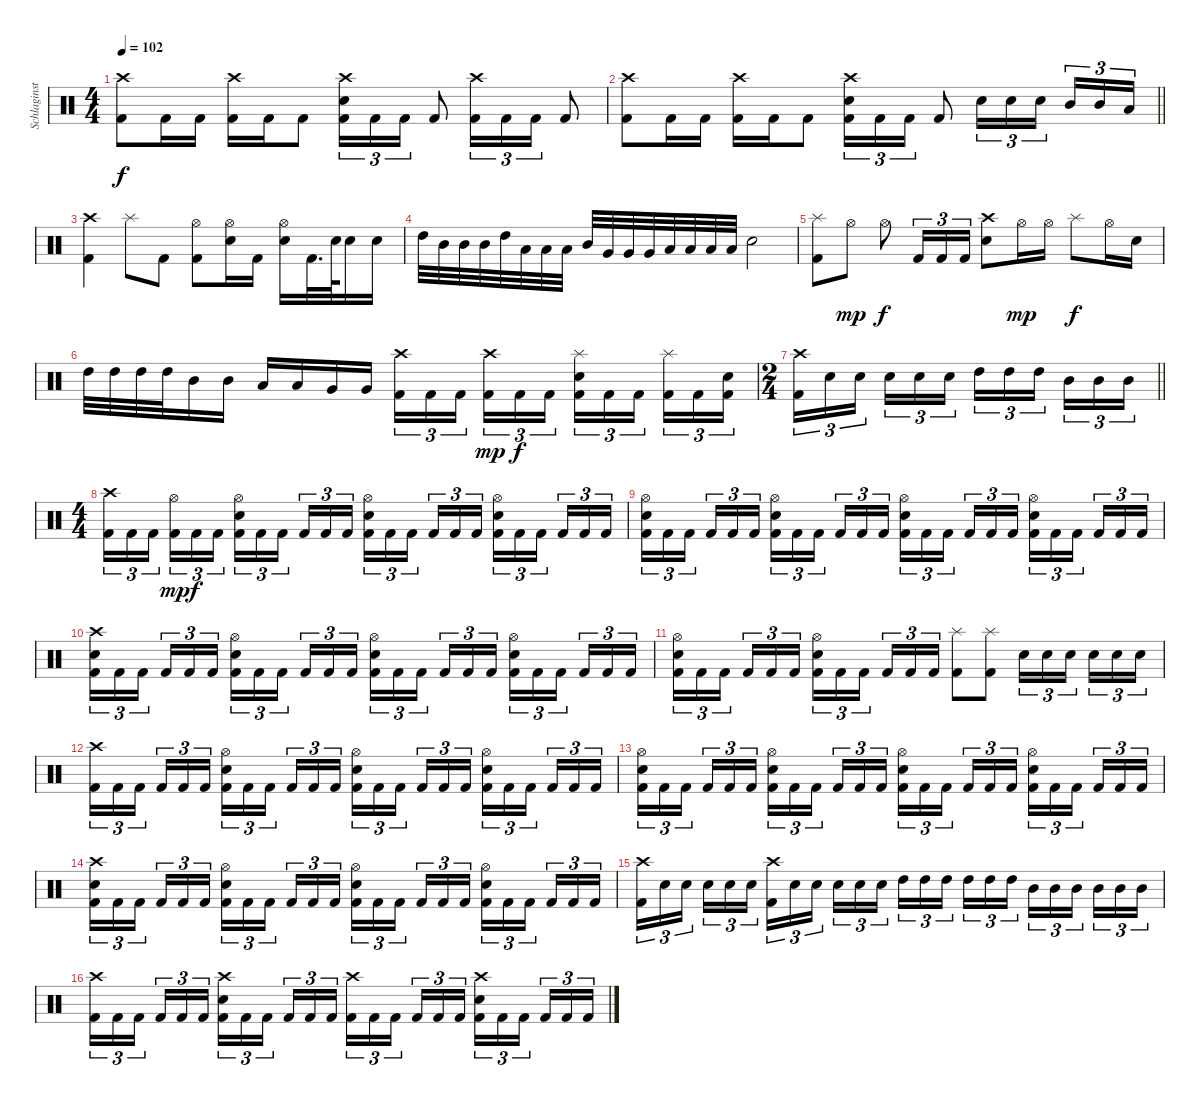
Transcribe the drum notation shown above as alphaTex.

\track ("Schlaginstrumente - Auswahl" "Schlaginst") {instrument percussion}
\staff {score}
\articulation defaults
\ts (4 4)
\tempo 102
\clef neutral
\ks c
("Crash high (hit)" "Kick (hit) 2").8{dy f} "Kick (hit) 2".16 "Kick (hit) 2".16 ("Crash high (hit)" "Kick (hit) 2").16 "Kick (hit) 2".16 "Kick (hit) 2".8 ("Crash high (hit)" "Snare (hit) 2" "Kick (hit) 2").16{tu (3 2)} "Kick (hit) 2".16{tu (3 2)} "Kick (hit) 2".16{tu (3 2)} "Kick (hit) 2".8 ("Crash high (hit)" "Kick (hit) 2").16{tu (3 2)} "Kick (hit) 2".16{tu (3 2)} "Kick (hit) 2".16{tu (3 2)} "Kick (hit) 2".8 |
\barLineRight lightlight
("Crash high (hit)" "Kick (hit) 2").8 "Kick (hit) 2".16 "Kick (hit) 2".16 ("Crash high (hit)" "Kick (hit) 2").16 "Kick (hit) 2".16 "Kick (hit) 2".8 ("Crash high (hit)" "Snare (hit) 2" "Kick (hit) 2").16{tu (3 2)} "Kick (hit) 2".16{tu (3 2)} "Kick (hit) 2".16{tu (3 2)} "Kick (hit) 2".8 "Snare (hit) 2".16{tu (3 2)} "Snare (hit) 2".16{tu (3 2)} "Snare (hit) 2".16{tu (3 2) beam splitsecondary} "Mid Tom (hit)".16{tu (3 2)} "Mid Tom (hit)".16{tu (3 2)} "Low Tom (hit)".16{tu (3 2)} |
("Crash high (hit)" "Kick (hit) 2").4 "Splash (hit)".8 "Kick (hit) 2".8 ("Hi-Hat (open)" "Kick (hit) 2").8 ("Hi-Hat (open)" "Snare (hit) 2").16 "Kick (hit) 2".16 ("Hi-Hat (open)" "Snare (hit) 2").16 "Kick (hit) 2".32{d} "Snare (hit) 2".64 "Snare (hit) 2".16 "Snare (hit) 2".16 |
"High Tom (hit)".32 "Mid Tom (hit)".32 "Mid Tom (hit)".32 "Mid Tom (hit)".32 "High Tom (hit)".32 "Low Tom (hit)".32 "Low Tom (hit)".32 "Low Tom (hit)".32 "Mid Tom (hit)".32 "Very Low Tom (hit)".32 "Very Low Tom (hit)".32 "Very Low Tom (hit)".32 "Low Tom (hit)".32 "Low Floor Tom (hit)".32 "Low Floor Tom (hit)".32 "Low Floor Tom (hit)".32 "Snare (hit) 2".2 |
("Splash (hit)" "Kick (hit) 2").8 "Hi-Hat (open)".8{dy mp} "Hi-Hat (open)".8{dy f} "Kick (hit) 2".16{tu (3 2)} "Kick (hit) 2".16{tu (3 2)} "Kick (hit) 2".16{tu (3 2)} ("Crash high (hit)" "Snare (hit) 2").8 "Hi-Hat (open)".16{dy mp} "Hi-Hat (open)".16 "Splash (hit)".8{dy f} "Hi-Hat (open)".16 "Snare (hit) 2".16 |
"High Tom (hit)".32 "High Tom (hit)".32 "High Tom (hit)".32 "High Tom (hit)".32 "Mid Tom (hit)".16 "Mid Tom (hit)".16 "Low Tom (hit)".16 "Low Tom (hit)".16 "Very Low Tom (hit)".16 "Very Low Tom (hit)".16 ("Crash high (hit)" "Kick (hit) 2").16{tu (3 2)} "Kick (hit) 2".16{tu (3 2)} "Kick (hit) 2".16{tu (3 2) beam splitsecondary} ("Crash high (hit)" "Kick (hit) 2").16{tu (3 2) dy mp} "Kick (hit) 2".16{tu (3 2) dy f} "Kick (hit) 2".16{tu (3 2)} ("Splash (hit)" "Snare (hit) 2" "Kick (hit) 2").16{tu (3 2)} "Kick (hit) 2".16{tu (3 2)} "Kick (hit) 2".16{tu (3 2) beam splitsecondary} ("Splash (hit)" "Kick (hit) 2").16{tu (3 2)} "Kick (hit) 2".16{tu (3 2)} ("Snare (hit) 2" "Kick (hit) 2").16{tu (3 2)} |
\ts (2 4)
\barLineRight lightlight
("Crash high (hit)" "Kick (hit) 2").16{tu (3 2)} "Snare (hit) 2".16{tu (3 2)} "Snare (hit) 2".16{tu (3 2) beam splitsecondary} "Snare (hit) 2".16{tu (3 2)} "Snare (hit) 2".16{tu (3 2)} "Snare (hit) 2".16{tu (3 2)} "High Tom (hit)".16{tu (3 2)} "High Tom (hit)".16{tu (3 2)} "High Tom (hit)".16{tu (3 2) beam splitsecondary} "Mid Tom (hit)".16{tu (3 2)} "Mid Tom (hit)".16{tu (3 2)} "Mid Tom (hit)".16{tu (3 2)} |
\ts (4 4)
("Crash high (hit)" "Kick (hit) 2").16{tu (3 2)} "Kick (hit) 2".16{tu (3 2)} "Kick (hit) 2".16{tu (3 2) beam splitsecondary} ("Hi-Hat (open)" "Kick (hit) 2").16{tu (3 2) dy mp} "Kick (hit) 2".16{tu (3 2) dy f} "Kick (hit) 2".16{tu (3 2)} ("Hi-Hat (open)" "Snare (hit) 2" "Kick (hit) 2").16{tu (3 2)} "Kick (hit) 2".16{tu (3 2)} "Kick (hit) 2".16{tu (3 2) beam splitsecondary} "Kick (hit) 2".16{tu (3 2)} "Kick (hit) 2".16{tu (3 2)} "Kick (hit) 2".16{tu (3 2)} ("Hi-Hat (open)" "Snare (hit) 2" "Kick (hit) 2").16{tu (3 2)} "Kick (hit) 2".16{tu (3 2)} "Kick (hit) 2".16{tu (3 2) beam splitsecondary} "Kick (hit) 2".16{tu (3 2)} "Kick (hit) 2".16{tu (3 2)} "Kick (hit) 2".16{tu (3 2)} ("Hi-Hat (open)" "Snare (hit) 2" "Kick (hit) 2").16{tu (3 2)} "Kick (hit) 2".16{tu (3 2)} "Kick (hit) 2".16{tu (3 2) beam splitsecondary} "Kick (hit) 2".16{tu (3 2)} "Kick (hit) 2".16{tu (3 2)} "Kick (hit) 2".16{tu (3 2)} |
("Hi-Hat (open)" "Snare (hit) 2" "Kick (hit) 2").16{tu (3 2)} "Kick (hit) 2".16{tu (3 2)} "Kick (hit) 2".16{tu (3 2) beam splitsecondary} "Kick (hit) 2".16{tu (3 2)} "Kick (hit) 2".16{tu (3 2)} "Kick (hit) 2".16{tu (3 2)} ("Hi-Hat (open)" "Snare (hit) 2" "Kick (hit) 2").16{tu (3 2)} "Kick (hit) 2".16{tu (3 2)} "Kick (hit) 2".16{tu (3 2) beam splitsecondary} "Kick (hit) 2".16{tu (3 2)} "Kick (hit) 2".16{tu (3 2)} "Kick (hit) 2".16{tu (3 2)} ("Hi-Hat (open)" "Snare (hit) 2" "Kick (hit) 2").16{tu (3 2)} "Kick (hit) 2".16{tu (3 2)} "Kick (hit) 2".16{tu (3 2) beam splitsecondary} "Kick (hit) 2".16{tu (3 2)} "Kick (hit) 2".16{tu (3 2)} "Kick (hit) 2".16{tu (3 2)} ("Hi-Hat (open)" "Snare (hit) 2" "Kick (hit) 2").16{tu (3 2)} "Kick (hit) 2".16{tu (3 2)} "Kick (hit) 2".16{tu (3 2) beam splitsecondary} "Kick (hit) 2".16{tu (3 2)} "Kick (hit) 2".16{tu (3 2)} "Kick (hit) 2".16{tu (3 2)} |
("Crash high (hit)" "Snare (hit) 2" "Kick (hit) 2").16{tu (3 2)} "Kick (hit) 2".16{tu (3 2)} "Kick (hit) 2".16{tu (3 2) beam splitsecondary} "Kick (hit) 2".16{tu (3 2)} "Kick (hit) 2".16{tu (3 2)} "Kick (hit) 2".16{tu (3 2)} ("Hi-Hat (open)" "Snare (hit) 2" "Kick (hit) 2").16{tu (3 2)} "Kick (hit) 2".16{tu (3 2)} "Kick (hit) 2".16{tu (3 2) beam splitsecondary} "Kick (hit) 2".16{tu (3 2)} "Kick (hit) 2".16{tu (3 2)} "Kick (hit) 2".16{tu (3 2)} ("Hi-Hat (open)" "Snare (hit) 2" "Kick (hit) 2").16{tu (3 2)} "Kick (hit) 2".16{tu (3 2)} "Kick (hit) 2".16{tu (3 2) beam splitsecondary} "Kick (hit) 2".16{tu (3 2)} "Kick (hit) 2".16{tu (3 2)} "Kick (hit) 2".16{tu (3 2)} ("Hi-Hat (open)" "Snare (hit) 2" "Kick (hit) 2").16{tu (3 2)} "Kick (hit) 2".16{tu (3 2)} "Kick (hit) 2".16{tu (3 2) beam splitsecondary} "Kick (hit) 2".16{tu (3 2)} "Kick (hit) 2".16{tu (3 2)} "Kick (hit) 2".16{tu (3 2)} |
("Hi-Hat (open)" "Snare (hit) 2" "Kick (hit) 2").16{tu (3 2)} "Kick (hit) 2".16{tu (3 2)} "Kick (hit) 2".16{tu (3 2) beam splitsecondary} "Kick (hit) 2".16{tu (3 2)} "Kick (hit) 2".16{tu (3 2)} "Kick (hit) 2".16{tu (3 2)} ("Hi-Hat (open)" "Snare (hit) 2" "Kick (hit) 2").16{tu (3 2)} "Kick (hit) 2".16{tu (3 2)} "Kick (hit) 2".16{tu (3 2) beam splitsecondary} "Kick (hit) 2".16{tu (3 2)} "Kick (hit) 2".16{tu (3 2)} "Kick (hit) 2".16{tu (3 2)} ("Splash (hit)" "Kick (hit) 2").8 ("Splash (hit)" "Kick (hit) 2").8 "Snare (hit) 2".16{tu (3 2)} "Snare (hit) 2".16{tu (3 2)} "Snare (hit) 2".16{tu (3 2) beam splitsecondary} "Snare (hit) 2".16{tu (3 2)} "Snare (hit) 2".16{tu (3 2)} "Snare (hit) 2".16{tu (3 2)} |
("Crash high (hit)" "Kick (hit) 2").16{tu (3 2)} "Kick (hit) 2".16{tu (3 2)} "Kick (hit) 2".16{tu (3 2) beam splitsecondary} "Kick (hit) 2".16{tu (3 2)} "Kick (hit) 2".16{tu (3 2)} "Kick (hit) 2".16{tu (3 2)} ("Hi-Hat (open)" "Snare (hit) 2" "Kick (hit) 2").16{tu (3 2)} "Kick (hit) 2".16{tu (3 2)} "Kick (hit) 2".16{tu (3 2) beam splitsecondary} "Kick (hit) 2".16{tu (3 2)} "Kick (hit) 2".16{tu (3 2)} "Kick (hit) 2".16{tu (3 2)} ("Hi-Hat (open)" "Snare (hit) 2" "Kick (hit) 2").16{tu (3 2)} "Kick (hit) 2".16{tu (3 2)} "Kick (hit) 2".16{tu (3 2) beam splitsecondary} "Kick (hit) 2".16{tu (3 2)} "Kick (hit) 2".16{tu (3 2)} "Kick (hit) 2".16{tu (3 2)} ("Hi-Hat (open)" "Snare (hit) 2" "Kick (hit) 2").16{tu (3 2)} "Kick (hit) 2".16{tu (3 2)} "Kick (hit) 2".16{tu (3 2) beam splitsecondary} "Kick (hit) 2".16{tu (3 2)} "Kick (hit) 2".16{tu (3 2)} "Kick (hit) 2".16{tu (3 2)} |
("Hi-Hat (open)" "Snare (hit) 2" "Kick (hit) 2").16{tu (3 2)} "Kick (hit) 2".16{tu (3 2)} "Kick (hit) 2".16{tu (3 2) beam splitsecondary} "Kick (hit) 2".16{tu (3 2)} "Kick (hit) 2".16{tu (3 2)} "Kick (hit) 2".16{tu (3 2)} ("Hi-Hat (open)" "Snare (hit) 2" "Kick (hit) 2").16{tu (3 2)} "Kick (hit) 2".16{tu (3 2)} "Kick (hit) 2".16{tu (3 2) beam splitsecondary} "Kick (hit) 2".16{tu (3 2)} "Kick (hit) 2".16{tu (3 2)} "Kick (hit) 2".16{tu (3 2)} ("Hi-Hat (open)" "Snare (hit) 2" "Kick (hit) 2").16{tu (3 2)} "Kick (hit) 2".16{tu (3 2)} "Kick (hit) 2".16{tu (3 2) beam splitsecondary} "Kick (hit) 2".16{tu (3 2)} "Kick (hit) 2".16{tu (3 2)} "Kick (hit) 2".16{tu (3 2)} ("Hi-Hat (open)" "Snare (hit) 2" "Kick (hit) 2").16{tu (3 2)} "Kick (hit) 2".16{tu (3 2)} "Kick (hit) 2".16{tu (3 2) beam splitsecondary} "Kick (hit) 2".16{tu (3 2)} "Kick (hit) 2".16{tu (3 2)} "Kick (hit) 2".16{tu (3 2)} |
("Crash high (hit)" "Snare (hit) 2" "Kick (hit) 2").16{tu (3 2)} "Kick (hit) 2".16{tu (3 2)} "Kick (hit) 2".16{tu (3 2) beam splitsecondary} "Kick (hit) 2".16{tu (3 2)} "Kick (hit) 2".16{tu (3 2)} "Kick (hit) 2".16{tu (3 2)} ("Hi-Hat (open)" "Snare (hit) 2" "Kick (hit) 2").16{tu (3 2)} "Kick (hit) 2".16{tu (3 2)} "Kick (hit) 2".16{tu (3 2) beam splitsecondary} "Kick (hit) 2".16{tu (3 2)} "Kick (hit) 2".16{tu (3 2)} "Kick (hit) 2".16{tu (3 2)} ("Hi-Hat (open)" "Snare (hit) 2" "Kick (hit) 2").16{tu (3 2)} "Kick (hit) 2".16{tu (3 2)} "Kick (hit) 2".16{tu (3 2) beam splitsecondary} "Kick (hit) 2".16{tu (3 2)} "Kick (hit) 2".16{tu (3 2)} "Kick (hit) 2".16{tu (3 2)} ("Hi-Hat (open)" "Snare (hit) 2" "Kick (hit) 2").16{tu (3 2)} "Kick (hit) 2".16{tu (3 2)} "Kick (hit) 2".16{tu (3 2) beam splitsecondary} "Kick (hit) 2".16{tu (3 2)} "Kick (hit) 2".16{tu (3 2)} "Kick (hit) 2".16{tu (3 2)} |
("Crash high (hit)" "Kick (hit) 2").16{tu (3 2)} "Snare (hit) 2".16{tu (3 2)} "Snare (hit) 2".16{tu (3 2) beam splitsecondary} "Snare (hit) 2".16{tu (3 2)} "Snare (hit) 2".16{tu (3 2)} "Snare (hit) 2".16{tu (3 2)} ("Crash high (hit)" "Kick (hit) 2").16{tu (3 2)} "Snare (hit) 2".16{tu (3 2)} "Snare (hit) 2".16{tu (3 2) beam splitsecondary} "Snare (hit) 2".16{tu (3 2)} "Snare (hit) 2".16{tu (3 2)} "Snare (hit) 2".16{tu (3 2)} "High Tom (hit)".16{tu (3 2)} "High Tom (hit)".16{tu (3 2)} "High Tom (hit)".16{tu (3 2) beam splitsecondary} "High Tom (hit)".16{tu (3 2)} "High Tom (hit)".16{tu (3 2)} "High Tom (hit)".16{tu (3 2)} "Mid Tom (hit)".16{tu (3 2)} "Mid Tom (hit)".16{tu (3 2)} "Mid Tom (hit)".16{tu (3 2) beam splitsecondary} "Mid Tom (hit)".16{tu (3 2)} "Mid Tom (hit)".16{tu (3 2)} "Mid Tom (hit)".16{tu (3 2)} |
("Crash high (hit)" "Kick (hit) 2").16{tu (3 2)} "Kick (hit) 2".16{tu (3 2)} "Kick (hit) 2".16{tu (3 2) beam splitsecondary} "Kick (hit) 2".16{tu (3 2)} "Kick (hit) 2".16{tu (3 2)} "Kick (hit) 2".16{tu (3 2)} ("Crash high (hit)" "Snare (hit) 2" "Kick (hit) 2").16{tu (3 2)} "Kick (hit) 2".16{tu (3 2)} "Kick (hit) 2".16{tu (3 2) beam splitsecondary} "Kick (hit) 2".16{tu (3 2)} "Kick (hit) 2".16{tu (3 2)} "Kick (hit) 2".16{tu (3 2)} ("Crash high (hit)" "Kick (hit) 2").16{tu (3 2)} "Kick (hit) 2".16{tu (3 2)} "Kick (hit) 2".16{tu (3 2) beam splitsecondary} "Kick (hit) 2".16{tu (3 2)} "Kick (hit) 2".16{tu (3 2)} "Kick (hit) 2".16{tu (3 2)} ("Crash high (hit)" "Snare (hit) 2" "Kick (hit) 2").16{tu (3 2)} "Kick (hit) 2".16{tu (3 2)} "Kick (hit) 2".16{tu (3 2) beam splitsecondary} "Kick (hit) 2".16{tu (3 2)} "Kick (hit) 2".16{tu (3 2)} "Kick (hit) 2".16{tu (3 2)}
